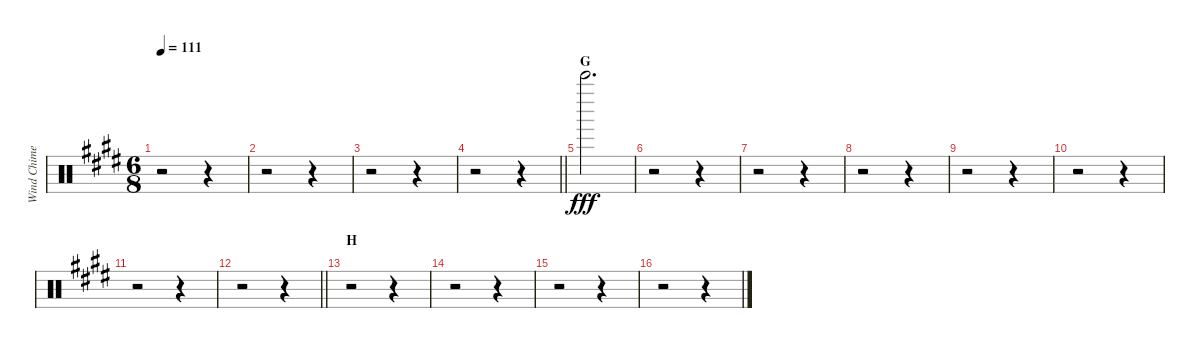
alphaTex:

\track ("Wind Chime" "Wind Chime") {instrument percussion}
\staff {score}
\articulation defaults
\ts (6 8)
\tempo 111
\clef neutral
\ks e
r.2{dy fff} r.4 |
r.2 r.4 |
r.2 r.4 |
\barLineRight lightlight
r.2 r.4 |
\section ("" "G")
"Bell Tree (hit)".2{d} |
r.2 r.4 |
r.2 r.4 |
r.2 r.4 |
r.2 r.4 |
r.2 r.4 |
r.2 r.4 |
\barLineRight lightlight
r.2 r.4 |
\section ("" "H")
r.2 r.4 |
r.2 r.4 |
r.2 r.4 |
r.2 r.4
